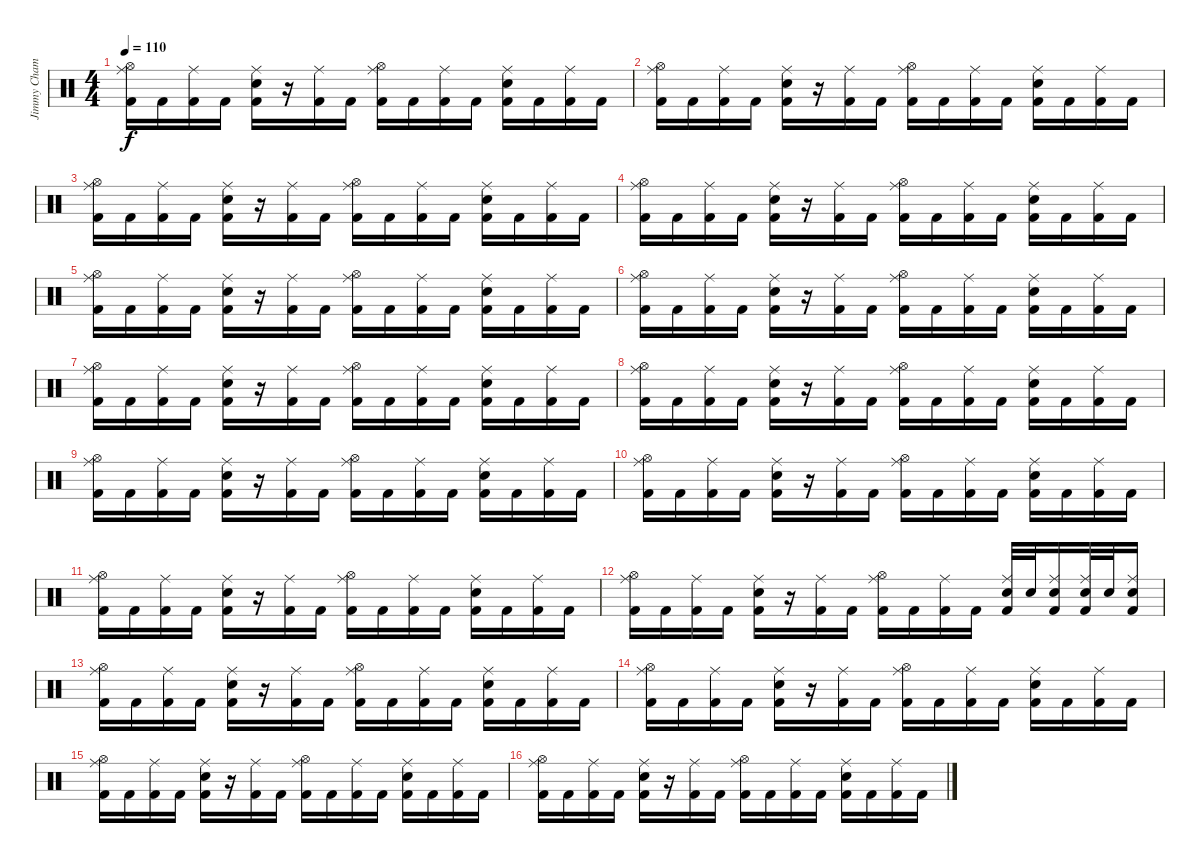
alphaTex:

\track ("Jimmy Chamberlin" "Jimmy Cham") {instrument percussion}
\staff {score}
\articulation defaults
\ts (4 4)
\tempo 110
\clef neutral
\ks c
("Kick (hit) 2" "Hi-Hat (open)" "Ride (middle)").16{dy f} "Kick (hit) 2".16 ("Kick (hit) 2" "Ride (middle)").16 "Kick (hit) 2".16 ("Kick (hit) 2" "Snare (hit) 2" "Ride (middle)").16 r.16 ("Kick (hit) 2" "Ride (middle)").16 "Kick (hit) 2".16 ("Kick (hit) 2" "Hi-Hat (open)" "Ride (middle)").16 "Kick (hit) 2".16 ("Kick (hit) 2" "Ride (middle)").16 "Kick (hit) 2".16 ("Kick (hit) 2" "Snare (hit) 2" "Ride (middle)").16 "Kick (hit) 2".16 ("Kick (hit) 2" "Ride (middle)").16 "Kick (hit) 2".16 |
("Kick (hit) 2" "Hi-Hat (open)" "Ride (middle)").16 "Kick (hit) 2".16 ("Kick (hit) 2" "Ride (middle)").16 "Kick (hit) 2".16 ("Kick (hit) 2" "Snare (hit) 2" "Ride (middle)").16 r.16 ("Kick (hit) 2" "Ride (middle)").16 "Kick (hit) 2".16 ("Kick (hit) 2" "Hi-Hat (open)" "Ride (middle)").16 "Kick (hit) 2".16 ("Kick (hit) 2" "Ride (middle)").16 "Kick (hit) 2".16 ("Kick (hit) 2" "Snare (hit) 2" "Ride (middle)").16 "Kick (hit) 2".16 ("Kick (hit) 2" "Ride (middle)").16 "Kick (hit) 2".16 |
("Kick (hit) 2" "Hi-Hat (open)" "Ride (middle)").16 "Kick (hit) 2".16 ("Kick (hit) 2" "Ride (middle)").16 "Kick (hit) 2".16 ("Kick (hit) 2" "Snare (hit) 2" "Ride (middle)").16 r.16 ("Kick (hit) 2" "Ride (middle)").16 "Kick (hit) 2".16 ("Kick (hit) 2" "Hi-Hat (open)" "Ride (middle)").16 "Kick (hit) 2".16 ("Kick (hit) 2" "Ride (middle)").16 "Kick (hit) 2".16 ("Kick (hit) 2" "Snare (hit) 2" "Ride (middle)").16 "Kick (hit) 2".16 ("Kick (hit) 2" "Ride (middle)").16 "Kick (hit) 2".16 |
("Kick (hit) 2" "Hi-Hat (open)" "Ride (middle)").16 "Kick (hit) 2".16 ("Kick (hit) 2" "Ride (middle)").16 "Kick (hit) 2".16 ("Kick (hit) 2" "Snare (hit) 2" "Ride (middle)").16 r.16 ("Kick (hit) 2" "Ride (middle)").16 "Kick (hit) 2".16 ("Kick (hit) 2" "Hi-Hat (open)" "Ride (middle)").16 "Kick (hit) 2".16 ("Kick (hit) 2" "Ride (middle)").16 "Kick (hit) 2".16 ("Kick (hit) 2" "Snare (hit) 2" "Ride (middle)").16 "Kick (hit) 2".16 ("Kick (hit) 2" "Ride (middle)").16 "Kick (hit) 2".16 |
("Kick (hit) 2" "Hi-Hat (open)" "Ride (middle)").16 "Kick (hit) 2".16 ("Kick (hit) 2" "Ride (middle)").16 "Kick (hit) 2".16 ("Kick (hit) 2" "Snare (hit) 2" "Ride (middle)").16 r.16 ("Kick (hit) 2" "Ride (middle)").16 "Kick (hit) 2".16 ("Kick (hit) 2" "Hi-Hat (open)" "Ride (middle)").16 "Kick (hit) 2".16 ("Kick (hit) 2" "Ride (middle)").16 "Kick (hit) 2".16 ("Kick (hit) 2" "Snare (hit) 2" "Ride (middle)").16 "Kick (hit) 2".16 ("Kick (hit) 2" "Ride (middle)").16 "Kick (hit) 2".16 |
("Kick (hit) 2" "Hi-Hat (open)" "Ride (middle)").16 "Kick (hit) 2".16 ("Kick (hit) 2" "Ride (middle)").16 "Kick (hit) 2".16 ("Kick (hit) 2" "Snare (hit) 2" "Ride (middle)").16 r.16 ("Kick (hit) 2" "Ride (middle)").16 "Kick (hit) 2".16 ("Kick (hit) 2" "Hi-Hat (open)" "Ride (middle)").16 "Kick (hit) 2".16 ("Kick (hit) 2" "Ride (middle)").16 "Kick (hit) 2".16 ("Kick (hit) 2" "Snare (hit) 2" "Ride (middle)").16 "Kick (hit) 2".16 ("Kick (hit) 2" "Ride (middle)").16 "Kick (hit) 2".16 |
("Kick (hit) 2" "Hi-Hat (open)" "Ride (middle)").16 "Kick (hit) 2".16 ("Kick (hit) 2" "Ride (middle)").16 "Kick (hit) 2".16 ("Kick (hit) 2" "Snare (hit) 2" "Ride (middle)").16 r.16 ("Kick (hit) 2" "Ride (middle)").16 "Kick (hit) 2".16 ("Kick (hit) 2" "Hi-Hat (open)" "Ride (middle)").16 "Kick (hit) 2".16 ("Kick (hit) 2" "Ride (middle)").16 "Kick (hit) 2".16 ("Kick (hit) 2" "Snare (hit) 2" "Ride (middle)").16 "Kick (hit) 2".16 ("Kick (hit) 2" "Ride (middle)").16 "Kick (hit) 2".16 |
("Kick (hit) 2" "Hi-Hat (open)" "Ride (middle)").16 "Kick (hit) 2".16 ("Kick (hit) 2" "Ride (middle)").16 "Kick (hit) 2".16 ("Kick (hit) 2" "Snare (hit) 2" "Ride (middle)").16 r.16 ("Kick (hit) 2" "Ride (middle)").16 "Kick (hit) 2".16 ("Kick (hit) 2" "Hi-Hat (open)" "Ride (middle)").16 "Kick (hit) 2".16 ("Kick (hit) 2" "Ride (middle)").16 "Kick (hit) 2".16 ("Kick (hit) 2" "Snare (hit) 2" "Ride (middle)").16 "Kick (hit) 2".16 ("Kick (hit) 2" "Ride (middle)").16 "Kick (hit) 2".16 |
("Kick (hit) 2" "Hi-Hat (open)" "Ride (middle)").16 "Kick (hit) 2".16 ("Kick (hit) 2" "Ride (middle)").16 "Kick (hit) 2".16 ("Kick (hit) 2" "Snare (hit) 2" "Ride (middle)").16 r.16 ("Kick (hit) 2" "Ride (middle)").16 "Kick (hit) 2".16 ("Kick (hit) 2" "Hi-Hat (open)" "Ride (middle)").16 "Kick (hit) 2".16 ("Kick (hit) 2" "Ride (middle)").16 "Kick (hit) 2".16 ("Kick (hit) 2" "Snare (hit) 2" "Ride (middle)").16 "Kick (hit) 2".16 ("Kick (hit) 2" "Ride (middle)").16 "Kick (hit) 2".16 |
("Kick (hit) 2" "Hi-Hat (open)" "Ride (middle)").16 "Kick (hit) 2".16 ("Kick (hit) 2" "Ride (middle)").16 "Kick (hit) 2".16 ("Kick (hit) 2" "Snare (hit) 2" "Ride (middle)").16 r.16 ("Kick (hit) 2" "Ride (middle)").16 "Kick (hit) 2".16 ("Kick (hit) 2" "Hi-Hat (open)" "Ride (middle)").16 "Kick (hit) 2".16 ("Kick (hit) 2" "Ride (middle)").16 "Kick (hit) 2".16 ("Kick (hit) 2" "Snare (hit) 2" "Ride (middle)").16 "Kick (hit) 2".16 ("Kick (hit) 2" "Ride (middle)").16 "Kick (hit) 2".16 |
("Kick (hit) 2" "Hi-Hat (open)" "Ride (middle)").16 "Kick (hit) 2".16 ("Kick (hit) 2" "Ride (middle)").16 "Kick (hit) 2".16 ("Kick (hit) 2" "Snare (hit) 2" "Ride (middle)").16 r.16 ("Kick (hit) 2" "Ride (middle)").16 "Kick (hit) 2".16 ("Kick (hit) 2" "Hi-Hat (open)" "Ride (middle)").16 "Kick (hit) 2".16 ("Kick (hit) 2" "Ride (middle)").16 "Kick (hit) 2".16 ("Kick (hit) 2" "Snare (hit) 2" "Ride (middle)").16 "Kick (hit) 2".16 ("Kick (hit) 2" "Ride (middle)").16 "Kick (hit) 2".16 |
("Kick (hit) 2" "Hi-Hat (open)" "Ride (middle)").16 "Kick (hit) 2".16 ("Kick (hit) 2" "Ride (middle)").16 "Kick (hit) 2".16 ("Kick (hit) 2" "Snare (hit) 2" "Ride (middle)").16 r.16 ("Kick (hit) 2" "Ride (middle)").16 "Kick (hit) 2".16 ("Kick (hit) 2" "Hi-Hat (open)" "Ride (middle)").16 "Kick (hit) 2".16 ("Kick (hit) 2" "Ride (middle)").16 "Kick (hit) 2".16 ("Kick (hit) 2" "Snare (hit) 2" "Ride (middle)").32 "Snare (hit) 2".32 ("Kick (hit) 2" "Snare (hit) 2" "Ride (middle)").16 ("Kick (hit) 2" "Snare (hit) 2" "Ride (middle)").32 "Snare (hit) 2".32 ("Kick (hit) 2" "Snare (hit) 2" "Ride (middle)").16 |
("Kick (hit) 2" "Hi-Hat (open)" "Ride (middle)").16 "Kick (hit) 2".16 ("Kick (hit) 2" "Ride (middle)").16 "Kick (hit) 2".16 ("Kick (hit) 2" "Snare (hit) 2" "Ride (middle)").16 r.16 ("Kick (hit) 2" "Ride (middle)").16 "Kick (hit) 2".16 ("Kick (hit) 2" "Hi-Hat (open)" "Ride (middle)").16 "Kick (hit) 2".16 ("Kick (hit) 2" "Ride (middle)").16 "Kick (hit) 2".16 ("Kick (hit) 2" "Snare (hit) 2" "Ride (middle)").16 "Kick (hit) 2".16 ("Kick (hit) 2" "Ride (middle)").16 "Kick (hit) 2".16 |
("Kick (hit) 2" "Hi-Hat (open)" "Ride (middle)").16 "Kick (hit) 2".16 ("Kick (hit) 2" "Ride (middle)").16 "Kick (hit) 2".16 ("Kick (hit) 2" "Snare (hit) 2" "Ride (middle)").16 r.16 ("Kick (hit) 2" "Ride (middle)").16 "Kick (hit) 2".16 ("Kick (hit) 2" "Hi-Hat (open)" "Ride (middle)").16 "Kick (hit) 2".16 ("Kick (hit) 2" "Ride (middle)").16 "Kick (hit) 2".16 ("Kick (hit) 2" "Snare (hit) 2" "Ride (middle)").16 "Kick (hit) 2".16 ("Kick (hit) 2" "Ride (middle)").16 "Kick (hit) 2".16 |
("Kick (hit) 2" "Hi-Hat (open)" "Ride (middle)").16 "Kick (hit) 2".16 ("Kick (hit) 2" "Ride (middle)").16 "Kick (hit) 2".16 ("Kick (hit) 2" "Snare (hit) 2" "Ride (middle)").16 r.16 ("Kick (hit) 2" "Ride (middle)").16 "Kick (hit) 2".16 ("Kick (hit) 2" "Hi-Hat (open)" "Ride (middle)").16 "Kick (hit) 2".16 ("Kick (hit) 2" "Ride (middle)").16 "Kick (hit) 2".16 ("Kick (hit) 2" "Snare (hit) 2" "Ride (middle)").16 "Kick (hit) 2".16 ("Kick (hit) 2" "Ride (middle)").16 "Kick (hit) 2".16 |
("Kick (hit) 2" "Hi-Hat (open)" "Ride (middle)").16 "Kick (hit) 2".16 ("Kick (hit) 2" "Ride (middle)").16 "Kick (hit) 2".16 ("Kick (hit) 2" "Snare (hit) 2" "Ride (middle)").16 r.16 ("Kick (hit) 2" "Ride (middle)").16 "Kick (hit) 2".16 ("Kick (hit) 2" "Hi-Hat (open)" "Ride (middle)").16 "Kick (hit) 2".16 ("Kick (hit) 2" "Ride (middle)").16 "Kick (hit) 2".16 ("Kick (hit) 2" "Snare (hit) 2" "Ride (middle)").16 "Kick (hit) 2".16 ("Kick (hit) 2" "Ride (middle)").16 "Kick (hit) 2".16
